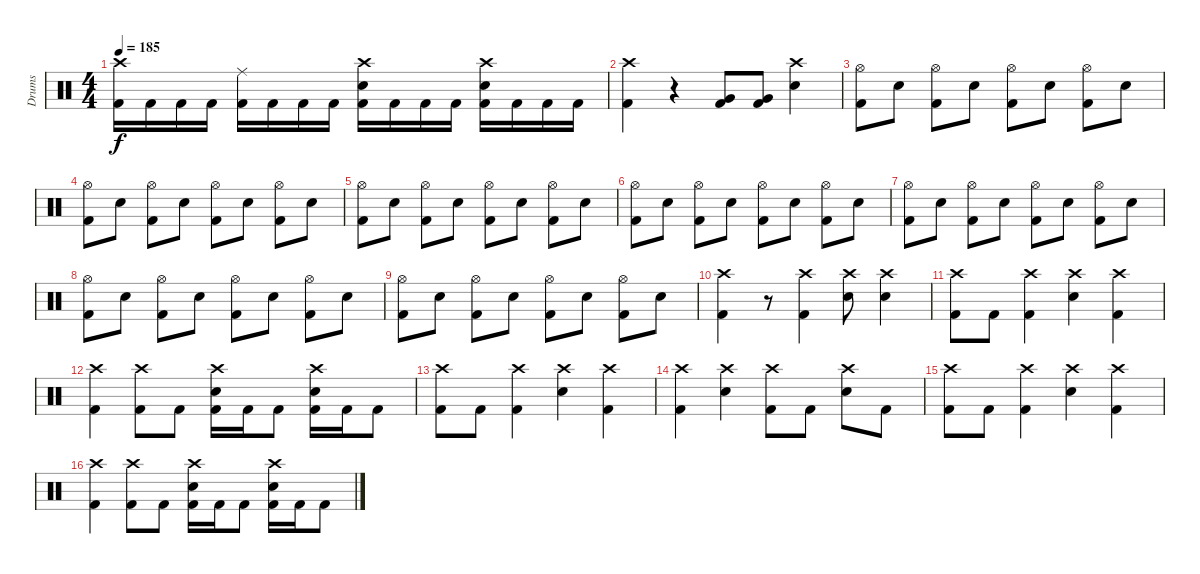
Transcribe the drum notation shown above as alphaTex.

\track ("Drums" "Drums") {instrument percussion}
\staff {score}
\articulation defaults
\ts (4 4)
\tempo 185
\clef neutral
\ks c
("Crash high (hit)" "Kick (hit) 2").16{dy f} "Kick (hit) 2".16 "Kick (hit) 2".16 "Kick (hit) 2".16 ("Ride (middle)" "Kick (hit) 2").16 "Kick (hit) 2".16 "Kick (hit) 2".16 "Kick (hit) 2".16 ("Crash high (hit)" "Snare (hit) 2" "Kick (hit) 2").16 "Kick (hit) 2".16 "Kick (hit) 2".16 "Kick (hit) 2".16 ("Crash high (hit)" "Snare (hit) 2" "Kick (hit) 2").16 "Kick (hit) 2".16 "Kick (hit) 2".16 "Kick (hit) 2".16 |
("Crash high (hit)" "Kick (hit) 2").4 r.4 ("Very Low Tom (hit)" "Kick (hit) 2").8 ("Very Low Tom (hit)" "Kick (hit) 2").8 ("Crash high (hit)" "Snare (hit) 2").4 |
("Hi-Hat (open)" "Kick (hit) 2").8 "Snare (hit) 2".8 ("Hi-Hat (open)" "Kick (hit) 2").8 "Snare (hit) 2".8 ("Hi-Hat (open)" "Kick (hit) 2").8 "Snare (hit) 2".8 ("Hi-Hat (open)" "Kick (hit) 2").8 "Snare (hit) 2".8 |
("Hi-Hat (open)" "Kick (hit) 2").8 "Snare (hit) 2".8 ("Hi-Hat (open)" "Kick (hit) 2").8 "Snare (hit) 2".8 ("Hi-Hat (open)" "Kick (hit) 2").8 "Snare (hit) 2".8 ("Hi-Hat (open)" "Kick (hit) 2").8 "Snare (hit) 2".8 |
("Hi-Hat (open)" "Kick (hit) 2").8 "Snare (hit) 2".8 ("Hi-Hat (open)" "Kick (hit) 2").8 "Snare (hit) 2".8 ("Hi-Hat (open)" "Kick (hit) 2").8 "Snare (hit) 2".8 ("Hi-Hat (open)" "Kick (hit) 2").8 "Snare (hit) 2".8 |
("Hi-Hat (open)" "Kick (hit) 2").8 "Snare (hit) 2".8 ("Hi-Hat (open)" "Kick (hit) 2").8 "Snare (hit) 2".8 ("Hi-Hat (open)" "Kick (hit) 2").8 "Snare (hit) 2".8 ("Hi-Hat (open)" "Kick (hit) 2").8 "Snare (hit) 2".8 |
("Hi-Hat (open)" "Kick (hit) 2").8 "Snare (hit) 2".8 ("Hi-Hat (open)" "Kick (hit) 2").8 "Snare (hit) 2".8 ("Hi-Hat (open)" "Kick (hit) 2").8 "Snare (hit) 2".8 ("Hi-Hat (open)" "Kick (hit) 2").8 "Snare (hit) 2".8 |
("Hi-Hat (open)" "Kick (hit) 2").8 "Snare (hit) 2".8 ("Hi-Hat (open)" "Kick (hit) 2").8 "Snare (hit) 2".8 ("Hi-Hat (open)" "Kick (hit) 2").8 "Snare (hit) 2".8 ("Hi-Hat (open)" "Kick (hit) 2").8 "Snare (hit) 2".8 |
("Hi-Hat (open)" "Kick (hit) 2").8 "Snare (hit) 2".8 ("Hi-Hat (open)" "Kick (hit) 2").8 "Snare (hit) 2".8 ("Hi-Hat (open)" "Kick (hit) 2").8 "Snare (hit) 2".8 ("Hi-Hat (open)" "Kick (hit) 2").8 "Snare (hit) 2".8 |
("Crash high (hit)" "Kick (hit) 2").4 r.8 ("Crash high (hit)" "Kick (hit) 2").4 ("Crash high (hit)" "Snare (hit) 2").8 ("Crash high (hit)" "Snare (hit) 2").4 |
("Crash high (hit)" "Kick (hit) 2").8 "Kick (hit) 2".8 ("Crash high (hit)" "Kick (hit) 2").4 ("Crash high (hit)" "Snare (hit) 2").4 ("Crash high (hit)" "Kick (hit) 2").4 |
("Crash high (hit)" "Kick (hit) 2").4 ("Crash high (hit)" "Kick (hit) 2").8 "Kick (hit) 2".8 ("Crash high (hit)" "Snare (hit) 2" "Kick (hit) 2").16 "Kick (hit) 2".16 "Kick (hit) 2".8 ("Crash high (hit)" "Snare (hit) 2" "Kick (hit) 2").16 "Kick (hit) 2".16 "Kick (hit) 2".8 |
("Crash high (hit)" "Kick (hit) 2").8 "Kick (hit) 2".8 ("Crash high (hit)" "Kick (hit) 2").4 ("Crash high (hit)" "Snare (hit) 2").4 ("Crash high (hit)" "Kick (hit) 2").4 |
("Crash high (hit)" "Kick (hit) 2").4 ("Crash high (hit)" "Snare (hit) 2").4 ("Crash high (hit)" "Kick (hit) 2").8 "Kick (hit) 2".8 ("Crash high (hit)" "Snare (hit) 2").8 "Kick (hit) 2".8 |
("Crash high (hit)" "Kick (hit) 2").8 "Kick (hit) 2".8 ("Crash high (hit)" "Kick (hit) 2").4 ("Crash high (hit)" "Snare (hit) 2").4 ("Crash high (hit)" "Kick (hit) 2").4 |
("Crash high (hit)" "Kick (hit) 2").4 ("Crash high (hit)" "Kick (hit) 2").8 "Kick (hit) 2".8 ("Crash high (hit)" "Snare (hit) 2" "Kick (hit) 2").16 "Kick (hit) 2".16 "Kick (hit) 2".8 ("Crash high (hit)" "Snare (hit) 2" "Kick (hit) 2").16 "Kick (hit) 2".16 "Kick (hit) 2".8
